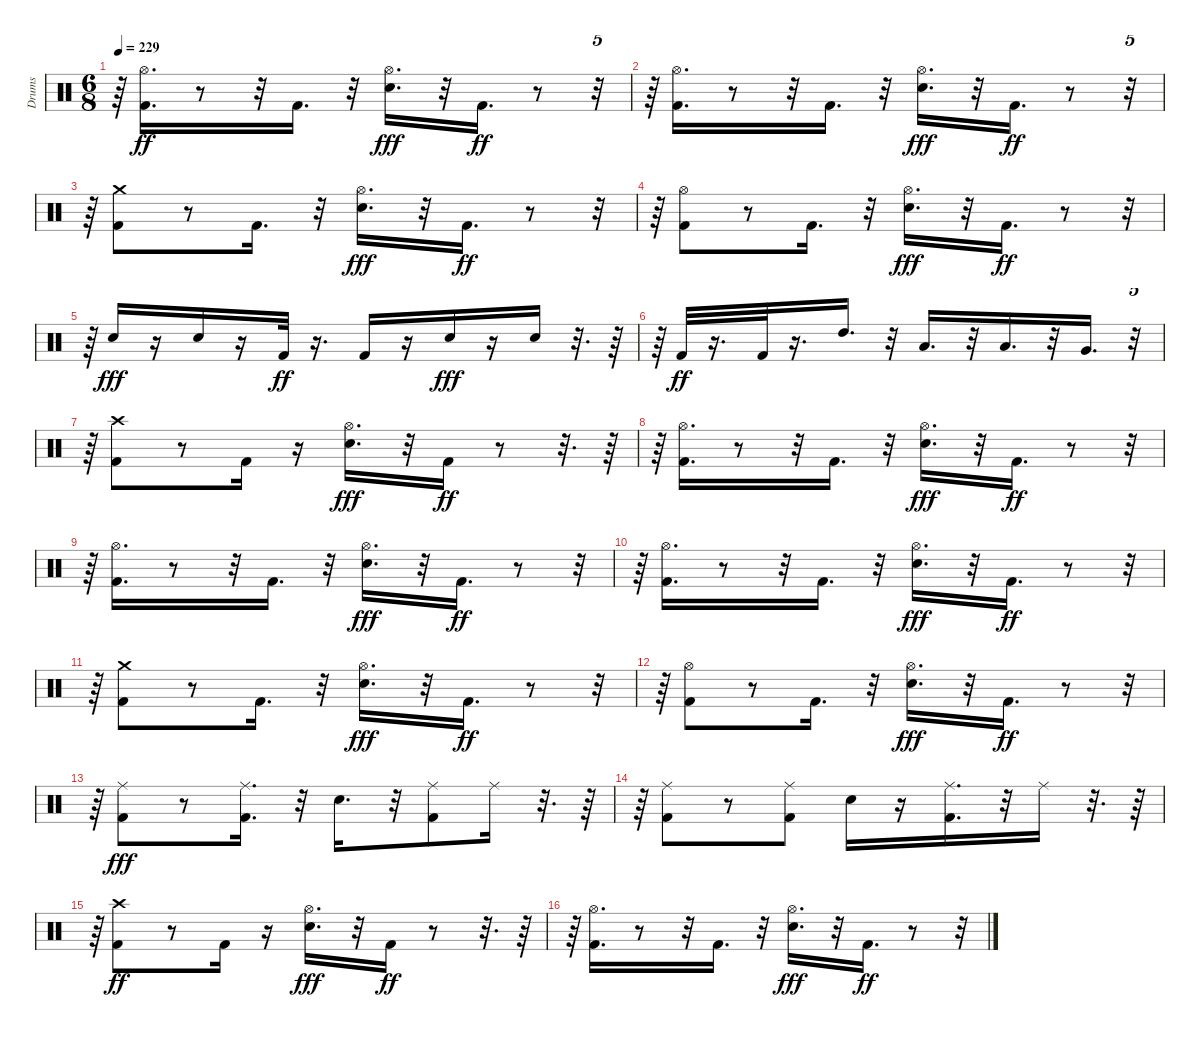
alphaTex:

\track ("Drums" "Drums") {instrument percussion}
\staff {score}
\articulation defaults
\ts (6 8)
\tempo 229
\clef neutral
\ks c
r.64{dy ff} ("Kick (hit) 2" "Hi-Hat (open)").16{d} r.8 r.32 "Kick (hit) 2".16{d} r.32 ("Snare (hit) 2" "Hi-Hat (open)").16{d dy fff} r.32 "Kick (hit) 2".16{d dy ff} r.8 r.32{tu (5 4)} |
r.64 ("Kick (hit) 2" "Hi-Hat (open)").16{d} r.8 r.32 "Kick (hit) 2".16{d} r.32 ("Snare (hit) 2" "Hi-Hat (open)").16{d dy fff} r.32 "Kick (hit) 2".16{d dy ff} r.8 r.32{tu (5 4)} |
r.64 ("Kick (hit) 2" "Crash medium (hit)").8 r.8 "Kick (hit) 2".16{d} r.32 ("Snare (hit) 2" "Hi-Hat (open)").16{d dy fff} r.32 "Kick (hit) 2".16{d dy ff} r.8 r.32{tu (5 4)} |
r.64 ("Kick (hit) 2" "Hi-Hat (open)").8 r.8 "Kick (hit) 2".16{d} r.32 ("Snare (hit) 2" "Hi-Hat (open)").16{d dy fff} r.32 "Kick (hit) 2".16{d dy ff} r.8 r.32{tu (5 4)} |
r.64 "Snare (hit) 2".16{dy fff} r.16 "Snare (hit) 2".16 r.16 "Kick (hit) 2".32{dy ff} r.16{d} "Kick (hit) 2".16 r.16 "Snare (hit) 2".16{dy fff} r.16 "Snare (hit) 2".16 r.32{d} r.64 |
r.64 "Kick (hit) 2".32{dy ff} r.16{d} "Kick (hit) 2".32 r.16{d} "High Tom (hit)".16{d} r.32 "Low Tom (hit)".16{d} r.32 "Low Tom (hit)".16{d} r.32 "Very Low Tom (hit)".16{d} r.32{tu (5 4)} |
r.64 ("Kick (hit) 2" "Crash high (hit)").8 r.8 "Kick (hit) 2".16 r.16 ("Snare (hit) 2" "Hi-Hat (open)").16{d dy fff} r.32 "Kick (hit) 2".16{dy ff} r.8 r.32{d} r.64 |
r.64 ("Kick (hit) 2" "Hi-Hat (open)").16{d} r.8 r.32 "Kick (hit) 2".16{d} r.32 ("Snare (hit) 2" "Hi-Hat (open)").16{d dy fff} r.32 "Kick (hit) 2".16{d dy ff} r.8 r.32{tu (5 4)} |
r.64 ("Kick (hit) 2" "Hi-Hat (open)").16{d} r.8 r.32 "Kick (hit) 2".16{d} r.32 ("Snare (hit) 2" "Hi-Hat (open)").16{d dy fff} r.32 "Kick (hit) 2".16{d dy ff} r.8 r.32{tu (5 4)} |
r.64 ("Kick (hit) 2" "Hi-Hat (open)").16{d} r.8 r.32 "Kick (hit) 2".16{d} r.32 ("Snare (hit) 2" "Hi-Hat (open)").16{d dy fff} r.32 "Kick (hit) 2".16{d dy ff} r.8 r.32{tu (5 4)} |
r.64 ("Kick (hit) 2" "Crash medium (hit)").8 r.8 "Kick (hit) 2".16{d} r.32 ("Snare (hit) 2" "Hi-Hat (open)").16{d dy fff} r.32 "Kick (hit) 2".16{d dy ff} r.8 r.32{tu (5 4)} |
r.64 ("Kick (hit) 2" "Hi-Hat (open)").8 r.8 "Kick (hit) 2".16{d} r.32 ("Snare (hit) 2" "Hi-Hat (open)").16{d dy fff} r.32 "Kick (hit) 2".16{d dy ff} r.8 r.32{tu (5 4)} |
r.64 ("Kick (hit) 2" "Ride (middle)").8{dy fff} r.8 ("Kick (hit) 2" "Ride (middle)").16{d} r.32 "Snare (hit) 2".16{d} r.32 ("Kick (hit) 2" "Ride (middle)").8 "Ride (middle)".16 r.32{d} r.64 |
r.64 ("Kick (hit) 2" "Ride (middle)").8 r.8 ("Kick (hit) 2" "Ride (middle)").8 "Snare (hit) 2".16 r.16 ("Kick (hit) 2" "Ride (middle)").16{d} r.32 "Ride (middle)".16 r.32{d} r.64 |
r.64 ("Kick (hit) 2" "Crash high (hit)").8{dy ff} r.8 "Kick (hit) 2".16 r.16 ("Snare (hit) 2" "Hi-Hat (open)").16{d dy fff} r.32 "Kick (hit) 2".16{dy ff} r.8 r.32{d} r.64 |
r.64 ("Kick (hit) 2" "Hi-Hat (open)").16{d} r.8 r.32 "Kick (hit) 2".16{d} r.32 ("Snare (hit) 2" "Hi-Hat (open)").16{d dy fff} r.32 "Kick (hit) 2".16{d dy ff} r.8 r.32{tu (5 4)}
